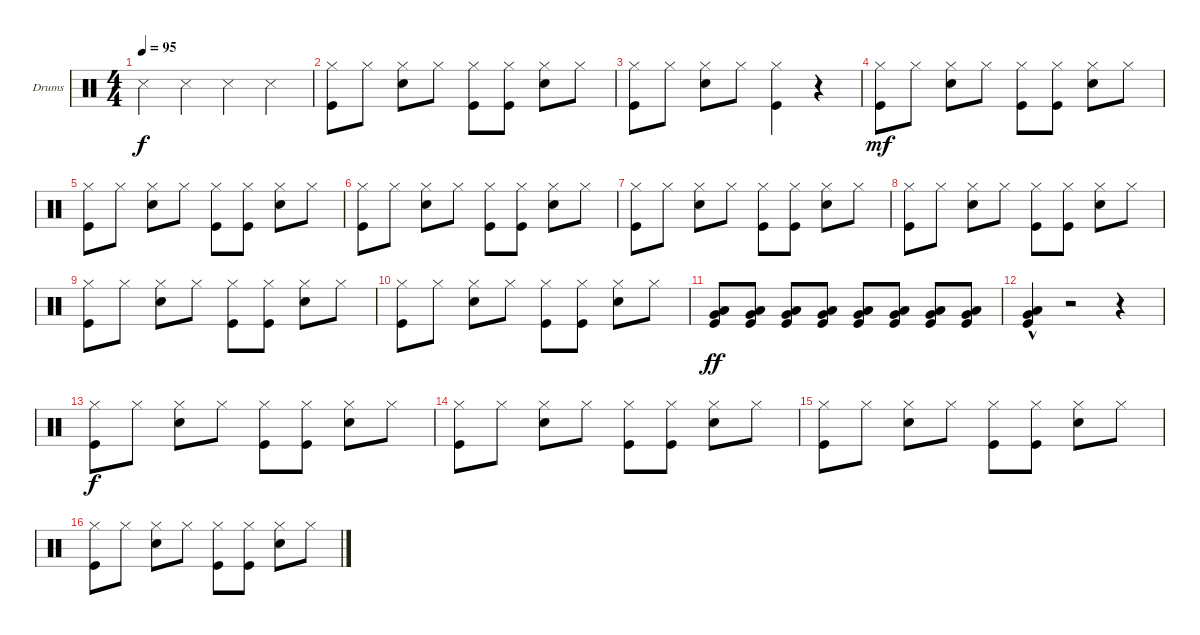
\defaultSystemsLayout 4
\bracketExtendMode groupsimilarinstruments
\firstSystemTrackNameOrientation horizontal
\otherSystemsTrackNameOrientation horizontal
\track ("Drumkit" "Drums") {instrument percussion}
\staff {score}
\articulation defaults
\ts (4 4)
\tempo 95
\clef neutral
\ks c "Snare (side stick) 3".4{dy f} "Snare (side stick) 3".4 "Snare (side stick) 3".4 "Snare (side stick) 3".4
|
("Kick (hit)" "Hi-Hat (closed)").8 "Hi-Hat (closed)".8 ("Hi-Hat (closed)" "Snare (hit) 2").8 "Hi-Hat (closed)".8 ("Hi-Hat (closed)" "Kick (hit)").8 ("Hi-Hat (closed)" "Kick (hit)").8 ("Hi-Hat (closed)" "Snare (hit) 2").8 "Hi-Hat (closed)".8 |
("Kick (hit)" "Hi-Hat (closed)").8 "Hi-Hat (closed)".8 ("Hi-Hat (closed)" "Snare (hit) 2").8 "Hi-Hat (closed)".8 ("Hi-Hat (closed)" "Kick (hit)").4 r.4 |
("Kick (hit)" "Hi-Hat (closed)").8{dy mf} "Hi-Hat (closed)".8 ("Hi-Hat (closed)" "Snare (hit) 2").8 "Hi-Hat (closed)".8 ("Hi-Hat (closed)" "Kick (hit)").8 ("Hi-Hat (closed)" "Kick (hit)").8 ("Hi-Hat (closed)" "Snare (hit) 2").8 "Hi-Hat (closed)".8 |
("Kick (hit)" "Hi-Hat (closed)").8 "Hi-Hat (closed)".8 ("Hi-Hat (closed)" "Snare (hit) 2").8 "Hi-Hat (closed)".8 ("Hi-Hat (closed)" "Kick (hit)").8 ("Hi-Hat (closed)" "Kick (hit)").8 ("Hi-Hat (closed)" "Snare (hit) 2").8 "Hi-Hat (closed)".8 |
("Kick (hit)" "Hi-Hat (closed)").8 "Hi-Hat (closed)".8 ("Hi-Hat (closed)" "Snare (hit) 2").8 "Hi-Hat (closed)".8 ("Hi-Hat (closed)" "Kick (hit)").8 ("Hi-Hat (closed)" "Kick (hit)").8 ("Hi-Hat (closed)" "Snare (hit) 2").8 "Hi-Hat (closed)".8 |
("Kick (hit)" "Hi-Hat (closed)").8 "Hi-Hat (closed)".8 ("Hi-Hat (closed)" "Snare (hit) 2").8 "Hi-Hat (closed)".8 ("Hi-Hat (closed)" "Kick (hit)").8 ("Hi-Hat (closed)" "Kick (hit)").8 ("Hi-Hat (closed)" "Snare (hit) 2").8 "Hi-Hat (closed)".8 |
("Kick (hit)" "Hi-Hat (closed)").8 "Hi-Hat (closed)".8 ("Hi-Hat (closed)" "Snare (hit) 2").8 "Hi-Hat (closed)".8 ("Hi-Hat (closed)" "Kick (hit)").8 ("Hi-Hat (closed)" "Kick (hit)").8 ("Hi-Hat (closed)" "Snare (hit) 2").8 "Hi-Hat (closed)".8 |
("Kick (hit)" "Hi-Hat (closed)").8 "Hi-Hat (closed)".8 ("Hi-Hat (closed)" "Snare (hit) 2").8 "Hi-Hat (closed)".8 ("Hi-Hat (closed)" "Kick (hit)").8 ("Hi-Hat (closed)" "Kick (hit)").8 ("Hi-Hat (closed)" "Snare (hit) 2").8 "Hi-Hat (closed)".8 |
("Kick (hit)" "Hi-Hat (closed)").8 "Hi-Hat (closed)".8 ("Hi-Hat (closed)" "Snare (hit) 2").8 "Hi-Hat (closed)".8 ("Hi-Hat (closed)" "Kick (hit)").8 ("Hi-Hat (closed)" "Kick (hit)").8 ("Hi-Hat (closed)" "Snare (hit) 2").8 "Hi-Hat (closed)".8 |
("Kick (hit)" "Low Tom (hit)" "Very Low Tom (hit)").8{dy ff} ("Low Tom (hit)" "Kick (hit)" "Very Low Tom (hit)").8 ("Kick (hit)" "Low Tom (hit)" "Very Low Tom (hit)").8 ("Low Tom (hit)" "Kick (hit)" "Very Low Tom (hit)").8 ("Kick (hit)" "Low Tom (hit)" "Very Low Tom (hit)").8 ("Low Tom (hit)" "Kick (hit)" "Very Low Tom (hit)").8 ("Kick (hit)" "Low Tom (hit)" "Very Low Tom (hit)").8 ("Low Tom (hit)" "Kick (hit)" "Very Low Tom (hit)").8 |
("Kick (hit)" "Low Tom (hit)" "Very Low Tom (hit)"{hac}).4 r.2 r.4 |
("Kick (hit)" "Hi-Hat (closed)").8{dy f} "Hi-Hat (closed)".8 ("Hi-Hat (closed)" "Snare (hit) 2").8 "Hi-Hat (closed)".8 ("Hi-Hat (closed)" "Kick (hit)").8 ("Hi-Hat (closed)" "Kick (hit)").8 ("Hi-Hat (closed)" "Snare (hit) 2").8 "Hi-Hat (closed)".8 |
("Kick (hit)" "Hi-Hat (closed)").8 "Hi-Hat (closed)".8 ("Hi-Hat (closed)" "Snare (hit) 2").8 "Hi-Hat (closed)".8 ("Hi-Hat (closed)" "Kick (hit)").8 ("Hi-Hat (closed)" "Kick (hit)").8 ("Hi-Hat (closed)" "Snare (hit) 2").8 "Hi-Hat (closed)".8 |
("Kick (hit)" "Hi-Hat (closed)").8 "Hi-Hat (closed)".8 ("Hi-Hat (closed)" "Snare (hit) 2").8 "Hi-Hat (closed)".8 ("Hi-Hat (closed)" "Kick (hit)").8 ("Hi-Hat (closed)" "Kick (hit)").8 ("Hi-Hat (closed)" "Snare (hit) 2").8 "Hi-Hat (closed)".8 |
("Kick (hit)" "Hi-Hat (closed)").8 "Hi-Hat (closed)".8 ("Hi-Hat (closed)" "Snare (hit) 2").8 "Hi-Hat (closed)".8 ("Hi-Hat (closed)" "Kick (hit)").8 ("Hi-Hat (closed)" "Kick (hit)").8 ("Hi-Hat (closed)" "Snare (hit) 2").8 "Hi-Hat (closed)".8
